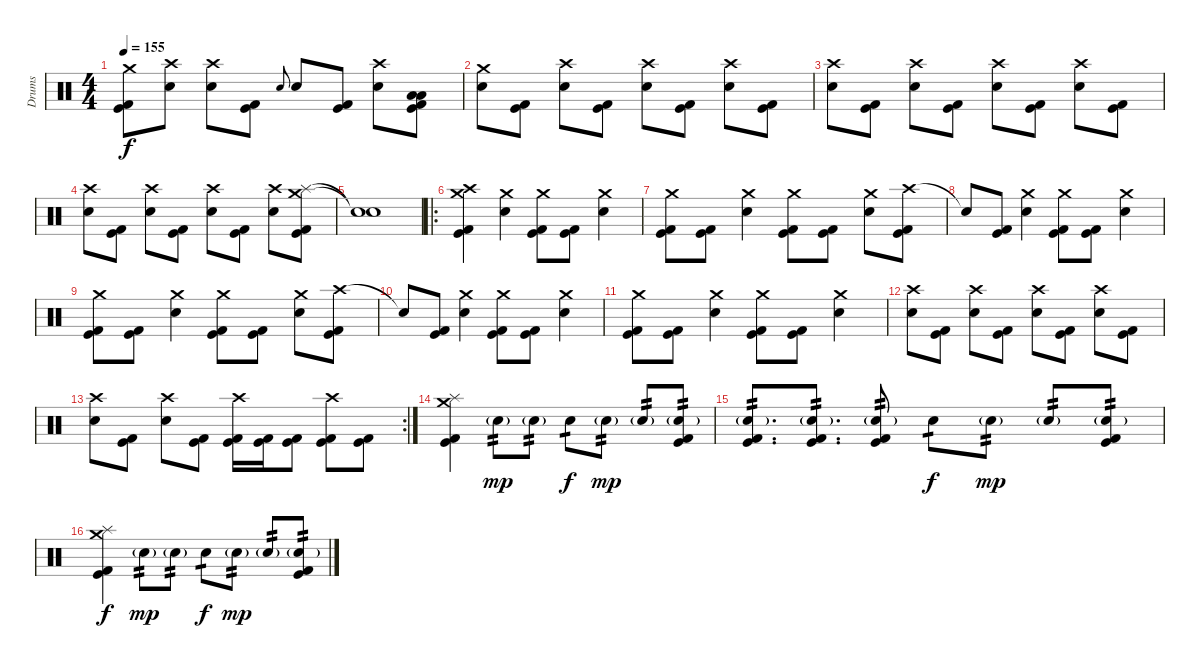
\track ("Drums" "Drums") {instrument percussion}
\staff {score}
\articulation defaults
\ts (4 4)
\tempo 155
\clef neutral
\ks c
("Crash medium (hit)" "Kick (hit)" "Kick (hit) 2").8{dy f} ("Crash high (hit)" "Electric Snare (hit)").8 ("Crash high (hit)" "Electric Snare (hit)").8 ("Kick (hit)" "Kick (hit) 2").8 "Electric Snare (hit)".8{gr onbeat} "Electric Snare (hit)".8 ("Kick (hit)" "Kick (hit) 2").8 ("Crash high (hit)" "Electric Snare (hit)").8 ("Low Floor Tom (hit)" "Low Tom (hit)" "Kick (hit)" "Kick (hit) 2").8 |
("Crash medium (hit)" "Electric Snare (hit)").8 ("Kick (hit)" "Kick (hit) 2").8 ("Crash high (hit)" "Electric Snare (hit)").8 ("Kick (hit)" "Kick (hit) 2").8 ("Crash high (hit)" "Electric Snare (hit)").8 ("Kick (hit)" "Kick (hit) 2").8 ("Crash high (hit)" "Electric Snare (hit)").8 ("Kick (hit)" "Kick (hit) 2").8 |
("Crash high (hit)" "Electric Snare (hit)").8 ("Kick (hit)" "Kick (hit) 2").8 ("Crash high (hit)" "Electric Snare (hit)").8 ("Kick (hit)" "Kick (hit) 2").8 ("Crash high (hit)" "Electric Snare (hit)").8 ("Kick (hit)" "Kick (hit) 2").8 ("Crash high (hit)" "Electric Snare (hit)").8 ("Kick (hit)" "Kick (hit) 2").8 |
("Crash high (hit)" "Electric Snare (hit)").8 ("Kick (hit)" "Kick (hit) 2").8 ("Crash high (hit)" "Electric Snare (hit)").8 ("Kick (hit)" "Kick (hit) 2").8 ("Crash high (hit)" "Electric Snare (hit)").8 ("Kick (hit)" "Kick (hit) 2").8 ("Crash high (hit)" "Electric Snare (hit)").8 ("Crash medium (hit)" "Splash (hit)" "Kick (hit)" "Kick (hit) 2").8 |
("Snare (hit)"{t} "Snare (hit)"{t}).1 |
\ro
("Crash high (hit)" "Crash medium (hit)" "Kick (hit)" "Kick (hit) 2").4 ("Crash medium (hit)" "Electric Snare (hit)").4 ("Crash medium (hit)" "Kick (hit)" "Kick (hit) 2").8 ("Kick (hit)" "Kick (hit) 2").8 ("Crash medium (hit)" "Electric Snare (hit)").4 |
("Crash medium (hit)" "Kick (hit)" "Kick (hit) 2").8 ("Kick (hit)" "Kick (hit) 2").8 ("Crash medium (hit)" "Electric Snare (hit)").4 ("Crash medium (hit)" "Kick (hit)" "Kick (hit) 2").8 ("Kick (hit)" "Kick (hit) 2").8 ("Crash medium (hit)" "Electric Snare (hit)").8 ("Crash high (hit)" "Kick (hit)" "Kick (hit) 2").8 |
"Snare (hit)"{t}.8 ("Kick (hit)" "Kick (hit) 2").8 ("Crash medium (hit)" "Electric Snare (hit)").4 ("Crash medium (hit)" "Kick (hit)" "Kick (hit) 2").8 ("Kick (hit)" "Kick (hit) 2").8 ("Crash medium (hit)" "Electric Snare (hit)").4 |
("Crash medium (hit)" "Kick (hit)" "Kick (hit) 2").8 ("Kick (hit)" "Kick (hit) 2").8 ("Crash medium (hit)" "Electric Snare (hit)").4 ("Crash medium (hit)" "Kick (hit)" "Kick (hit) 2").8 ("Kick (hit)" "Kick (hit) 2").8 ("Crash medium (hit)" "Electric Snare (hit)").8 ("Crash high (hit)" "Kick (hit)" "Kick (hit) 2").8 |
"Snare (hit)"{t}.8 ("Kick (hit)" "Kick (hit) 2").8 ("Crash medium (hit)" "Electric Snare (hit)").4 ("Crash medium (hit)" "Kick (hit)" "Kick (hit) 2").8 ("Kick (hit)" "Kick (hit) 2").8 ("Crash medium (hit)" "Electric Snare (hit)").4 |
("Crash medium (hit)" "Kick (hit)" "Kick (hit) 2").8 ("Kick (hit)" "Kick (hit) 2").8 ("Crash medium (hit)" "Electric Snare (hit)").4 ("Crash medium (hit)" "Kick (hit)" "Kick (hit) 2").8 ("Kick (hit)" "Kick (hit) 2").8 ("Crash medium (hit)" "Electric Snare (hit)").4 |
("Crash high (hit)" "Electric Snare (hit)").8 ("Kick (hit)" "Kick (hit) 2").8 ("Crash high (hit)" "Electric Snare (hit)").8 ("Kick (hit)" "Kick (hit) 2").8 ("Crash high (hit)" "Electric Snare (hit)").8 ("Kick (hit)" "Kick (hit) 2").8 ("Crash high (hit)" "Electric Snare (hit)").8 ("Kick (hit)" "Kick (hit) 2").8 |
\rc 2
("Crash high (hit)" "Electric Snare (hit)").8 ("Kick (hit)" "Kick (hit) 2").8 ("Crash high (hit)" "Electric Snare (hit)").8 ("Kick (hit)" "Kick (hit) 2").8 ("Crash high (hit)" "Kick (hit)" "Kick (hit) 2").16 ("Kick (hit)" "Kick (hit) 2").16 ("Kick (hit)" "Kick (hit) 2").8 ("Crash high (hit)" "Kick (hit)" "Kick (hit) 2").8 ("Kick (hit)" "Kick (hit) 2").8 |
("Crash medium (hit)" "Splash (hit)" "Kick (hit)" "Kick (hit) 2").4 "Electric Snare (hit)"{g}.8{tp 2 dy mp} "Electric Snare (hit)"{g}.8{tp 2} "Electric Snare (hit)".8{tp 1 dy f} "Electric Snare (hit)"{g}.8{tp 2 dy mp} "Electric Snare (hit)"{g}.8{tp 2} ("Electric Snare (hit)"{g} "Kick (hit)" "Kick (hit) 2").8{tp 2} |
("Electric Snare (hit)"{g} "Kick (hit)" "Kick (hit) 2").8{d tp 2} ("Electric Snare (hit)"{g} "Kick (hit)" "Kick (hit) 2").8{d tp 2} ("Electric Snare (hit)"{g} "Kick (hit)" "Kick (hit) 2").8{tp 2} "Electric Snare (hit)".8{tp 1 dy f} "Electric Snare (hit)"{g}.8{tp 2 dy mp} "Electric Snare (hit)"{g}.8{tp 2} ("Electric Snare (hit)"{g} "Kick (hit)" "Kick (hit) 2").8{tp 2} |
("Crash medium (hit)" "Splash (hit)" "Kick (hit)" "Kick (hit) 2").4{dy f} "Electric Snare (hit)"{g}.8{tp 2 dy mp} "Electric Snare (hit)"{g}.8{tp 2} "Electric Snare (hit)".8{tp 1 dy f} "Electric Snare (hit)"{g}.8{tp 2 dy mp} "Electric Snare (hit)"{g}.8{tp 2} ("Electric Snare (hit)"{g} "Kick (hit)" "Kick (hit) 2").8{tp 2}
